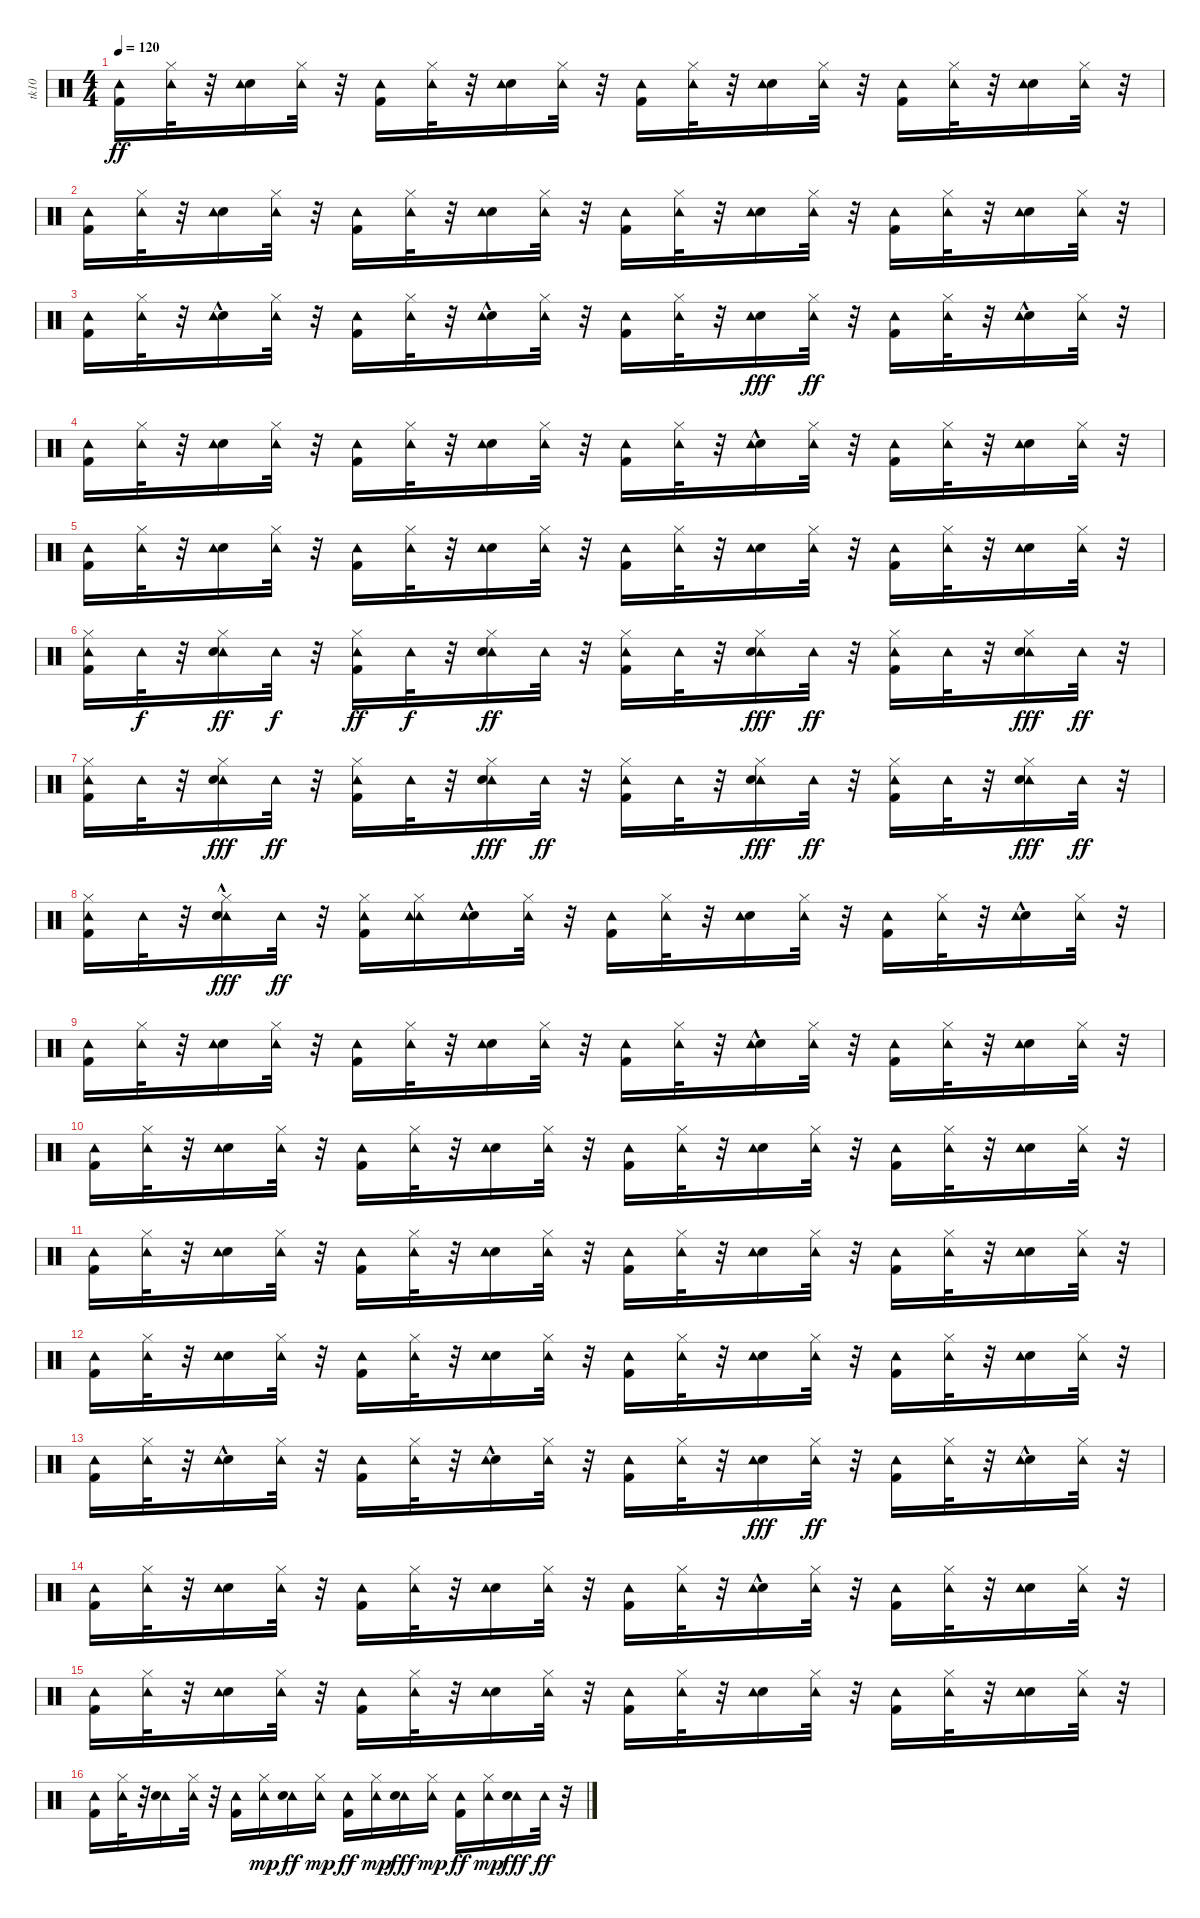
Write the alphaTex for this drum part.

\track ("tk10" "tk10") {instrument percussion}
\staff {score}
\articulation defaults
\ts (4 4)
\tempo 120
\clef neutral
\ks c
("Kick (hit) 2" "Tambourine (hit)").16{dy ff} ("Tambourine (hit)" "Hi-Hat (closed)").32 r.32 ("Snare (hit) 2" "Tambourine (hit)").16 ("Tambourine (hit)" "Hi-Hat (closed)").32 r.32 ("Kick (hit) 2" "Tambourine (hit)").16 ("Tambourine (hit)" "Hi-Hat (closed)").32 r.32 ("Snare (hit) 2" "Tambourine (hit)").16 ("Hi-Hat (closed)" "Tambourine (hit)").32 r.32 ("Kick (hit) 2" "Tambourine (hit)").16 ("Tambourine (hit)" "Hi-Hat (closed)").32 r.32 ("Snare (hit) 2" "Tambourine (hit)").16 ("Tambourine (hit)" "Hi-Hat (closed)").32 r.32 ("Kick (hit) 2" "Tambourine (hit)").16 ("Tambourine (hit)" "Hi-Hat (closed)").32 r.32 ("Snare (hit) 2" "Tambourine (hit)").16 ("Tambourine (hit)" "Hi-Hat (closed)").32 r.32 |
("Kick (hit) 2" "Tambourine (hit)").16 ("Tambourine (hit)" "Hi-Hat (closed)").32 r.32 ("Snare (hit) 2" "Tambourine (hit)").16 ("Hi-Hat (closed)" "Tambourine (hit)").32 r.32 ("Kick (hit) 2" "Tambourine (hit)").16 ("Tambourine (hit)" "Hi-Hat (closed)").32 r.32 ("Snare (hit) 2" "Tambourine (hit)").16 ("Tambourine (hit)" "Hi-Hat (closed)").32 r.32 ("Kick (hit) 2" "Tambourine (hit)").16 ("Tambourine (hit)" "Hi-Hat (closed)").32 r.32 ("Snare (hit) 2" "Tambourine (hit)").16 ("Tambourine (hit)" "Hi-Hat (closed)").32 r.32 ("Kick (hit) 2" "Tambourine (hit)").16 ("Hi-Hat (closed)" "Tambourine (hit)").32 r.32 ("Snare (hit) 2" "Tambourine (hit)").16 ("Tambourine (hit)" "Hi-Hat (closed)").32 r.32 |
("Kick (hit) 2" "Tambourine (hit)").16 ("Tambourine (hit)" "Hi-Hat (closed)").32 r.32 ("Snare (hit) 2"{hac} "Tambourine (hit)").16 ("Hi-Hat (closed)" "Tambourine (hit)").32 r.32 ("Kick (hit) 2" "Tambourine (hit)").16 ("Hi-Hat (closed)" "Tambourine (hit)").32 r.32 ("Snare (hit) 2"{hac} "Tambourine (hit)").16 ("Tambourine (hit)" "Hi-Hat (closed)").32 r.32 ("Kick (hit) 2" "Tambourine (hit)").16 ("Tambourine (hit)" "Hi-Hat (closed)").32 r.32 ("Snare (hit) 2" "Tambourine (hit)").16{dy fff} ("Tambourine (hit)" "Hi-Hat (closed)").32{dy ff} r.32 ("Kick (hit) 2" "Tambourine (hit)").16 ("Tambourine (hit)" "Hi-Hat (closed)").32 r.32 ("Snare (hit) 2"{hac} "Tambourine (hit)").16 ("Tambourine (hit)" "Hi-Hat (closed)").32 r.32 |
("Kick (hit) 2" "Tambourine (hit)").16 ("Tambourine (hit)" "Hi-Hat (closed)").32 r.32 ("Snare (hit) 2" "Tambourine (hit)").16 ("Tambourine (hit)" "Hi-Hat (closed)").32 r.32 ("Kick (hit) 2" "Tambourine (hit)").16 ("Tambourine (hit)" "Hi-Hat (closed)").32 r.32 ("Snare (hit) 2" "Tambourine (hit)").16 ("Tambourine (hit)" "Hi-Hat (closed)").32 r.32 ("Kick (hit) 2" "Tambourine (hit)").16 ("Tambourine (hit)" "Hi-Hat (closed)").32 r.32 ("Snare (hit) 2"{hac} "Tambourine (hit)").16 ("Tambourine (hit)" "Hi-Hat (closed)").32 r.32 ("Kick (hit) 2" "Tambourine (hit)").16 ("Tambourine (hit)" "Hi-Hat (closed)").32 r.32 ("Snare (hit) 2" "Tambourine (hit)").16 ("Tambourine (hit)" "Hi-Hat (closed)").32 r.32 |
("Kick (hit) 2" "Tambourine (hit)").16 ("Hi-Hat (closed)" "Tambourine (hit)").32 r.32 ("Snare (hit) 2" "Tambourine (hit)").16 ("Tambourine (hit)" "Hi-Hat (closed)").32 r.32 ("Kick (hit) 2" "Tambourine (hit)").16 ("Tambourine (hit)" "Hi-Hat (closed)").32 r.32 ("Snare (hit) 2" "Tambourine (hit)").16 ("Tambourine (hit)" "Hi-Hat (closed)").32 r.32 ("Kick (hit) 2" "Tambourine (hit)").16 ("Tambourine (hit)" "Hi-Hat (closed)").32 r.32 ("Snare (hit) 2" "Tambourine (hit)").16 ("Hi-Hat (closed)" "Tambourine (hit)").32 r.32 ("Kick (hit) 2" "Tambourine (hit)").16 ("Tambourine (hit)" "Hi-Hat (closed)").32 r.32 ("Snare (hit) 2" "Tambourine (hit)").16 ("Tambourine (hit)" "Hi-Hat (closed)").32 r.32 |
("Tambourine (hit)" "Hi-Hat (closed)" "Kick (hit) 2").16 "Tambourine (hit)".32{dy f} r.32 ("Tambourine (hit)" "Hi-Hat (closed)" "Snare (hit) 2").16{dy ff} "Tambourine (hit)".32{dy f} r.32 ("Tambourine (hit)" "Hi-Hat (closed)" "Kick (hit) 2").16{dy ff} "Tambourine (hit)".32{dy f} r.32 ("Tambourine (hit)" "Hi-Hat (closed)" "Snare (hit) 2").16{dy ff} "Tambourine (hit)".32 r.32 ("Tambourine (hit)" "Hi-Hat (closed)" "Kick (hit) 2").16 "Tambourine (hit)".32 r.32 ("Tambourine (hit)" "Hi-Hat (closed)" "Snare (hit) 2").16{dy fff} "Tambourine (hit)".32{dy ff} r.32 ("Tambourine (hit)" "Hi-Hat (closed)" "Kick (hit) 2").16 "Tambourine (hit)".32 r.32 ("Tambourine (hit)" "Hi-Hat (closed)" "Snare (hit) 2").16{dy fff} "Tambourine (hit)".32{dy ff} r.32 |
("Tambourine (hit)" "Hi-Hat (closed)" "Kick (hit) 2").16 "Tambourine (hit)".32 r.32 ("Tambourine (hit)" "Hi-Hat (closed)" "Snare (hit) 2").16{dy fff} "Tambourine (hit)".32{dy ff} r.32 ("Tambourine (hit)" "Hi-Hat (closed)" "Kick (hit) 2").16 "Tambourine (hit)".32 r.32 ("Tambourine (hit)" "Hi-Hat (closed)" "Snare (hit) 2").16{dy fff} "Tambourine (hit)".32{dy ff} r.32 ("Tambourine (hit)" "Hi-Hat (closed)" "Kick (hit) 2").16 "Tambourine (hit)".32 r.32 ("Tambourine (hit)" "Hi-Hat (closed)" "Snare (hit) 2").16{dy fff} "Tambourine (hit)".32{dy ff} r.32 ("Tambourine (hit)" "Hi-Hat (closed)" "Kick (hit) 2").16 "Tambourine (hit)".32 r.32 ("Tambourine (hit)" "Hi-Hat (closed)" "Snare (hit) 2").16{dy fff} "Tambourine (hit)".32{dy ff} r.32 |
("Tambourine (hit)" "Hi-Hat (closed)" "Kick (hit) 2").16 "Tambourine (hit)".32 r.32 ("Tambourine (hit)" "Hi-Hat (closed)" "Snare (hit) 2"{hac}).16{dy fff} "Tambourine (hit)".32{dy ff} r.32 ("Tambourine (hit)" "Hi-Hat (closed)" "Kick (hit) 2").16 ("Tambourine (hit)" "Hi-Hat (closed)" "Tambourine (hit)").16 ("Snare (hit) 2"{hac} "Tambourine (hit)").16 ("Hi-Hat (closed)" "Tambourine (hit)").32 r.32 ("Kick (hit) 2" "Tambourine (hit)").16 ("Hi-Hat (closed)" "Tambourine (hit)").32 r.32 ("Snare (hit) 2" "Tambourine (hit)").16 ("Tambourine (hit)" "Hi-Hat (closed)").32 r.32 ("Kick (hit) 2" "Tambourine (hit)").16 ("Tambourine (hit)" "Hi-Hat (closed)").32 r.32 ("Snare (hit) 2"{hac} "Tambourine (hit)").16 ("Tambourine (hit)" "Hi-Hat (closed)").32 r.32 |
("Kick (hit) 2" "Tambourine (hit)").16 ("Hi-Hat (closed)" "Tambourine (hit)").32 r.32 ("Snare (hit) 2" "Tambourine (hit)").16 ("Hi-Hat (closed)" "Tambourine (hit)").32 r.32 ("Kick (hit) 2" "Tambourine (hit)").16 ("Tambourine (hit)" "Hi-Hat (closed)").32 r.32 ("Snare (hit) 2" "Tambourine (hit)").16 ("Hi-Hat (closed)" "Tambourine (hit)").32 r.32 ("Kick (hit) 2" "Tambourine (hit)").16 ("Tambourine (hit)" "Hi-Hat (closed)").32 r.32 ("Snare (hit) 2"{hac} "Tambourine (hit)").16 ("Tambourine (hit)" "Hi-Hat (closed)").32 r.32 ("Kick (hit) 2" "Tambourine (hit)").16 ("Tambourine (hit)" "Hi-Hat (closed)").32 r.32 ("Snare (hit) 2" "Tambourine (hit)").16 ("Tambourine (hit)" "Hi-Hat (closed)").32 r.32 |
("Kick (hit) 2" "Tambourine (hit)").16 ("Tambourine (hit)" "Hi-Hat (closed)").32 r.32 ("Snare (hit) 2" "Tambourine (hit)").16 ("Hi-Hat (closed)" "Tambourine (hit)").32 r.32 ("Kick (hit) 2" "Tambourine (hit)").16 ("Tambourine (hit)" "Hi-Hat (closed)").32 r.32 ("Snare (hit) 2" "Tambourine (hit)").16 ("Hi-Hat (closed)" "Tambourine (hit)").32 r.32 ("Kick (hit) 2" "Tambourine (hit)").16 ("Tambourine (hit)" "Hi-Hat (closed)").32 r.32 ("Snare (hit) 2" "Tambourine (hit)").16 ("Tambourine (hit)" "Hi-Hat (closed)").32 r.32 ("Kick (hit) 2" "Tambourine (hit)").16 ("Hi-Hat (closed)" "Tambourine (hit)").32 r.32 ("Snare (hit) 2" "Tambourine (hit)").16 ("Hi-Hat (closed)" "Tambourine (hit)").32 r.32 |
("Kick (hit) 2" "Tambourine (hit)").16 ("Tambourine (hit)" "Hi-Hat (closed)").32 r.32 ("Snare (hit) 2" "Tambourine (hit)").16 ("Tambourine (hit)" "Hi-Hat (closed)").32 r.32 ("Kick (hit) 2" "Tambourine (hit)").16 ("Tambourine (hit)" "Hi-Hat (closed)").32 r.32 ("Snare (hit) 2" "Tambourine (hit)").16 ("Hi-Hat (closed)" "Tambourine (hit)").32 r.32 ("Kick (hit) 2" "Tambourine (hit)").16 ("Tambourine (hit)" "Hi-Hat (closed)").32 r.32 ("Snare (hit) 2" "Tambourine (hit)").16 ("Tambourine (hit)" "Hi-Hat (closed)").32 r.32 ("Kick (hit) 2" "Tambourine (hit)").16 ("Tambourine (hit)" "Hi-Hat (closed)").32 r.32 ("Snare (hit) 2" "Tambourine (hit)").16 ("Tambourine (hit)" "Hi-Hat (closed)").32 r.32 |
("Kick (hit) 2" "Tambourine (hit)").16 ("Tambourine (hit)" "Hi-Hat (closed)").32 r.32 ("Snare (hit) 2" "Tambourine (hit)").16 ("Hi-Hat (closed)" "Tambourine (hit)").32 r.32 ("Kick (hit) 2" "Tambourine (hit)").16 ("Tambourine (hit)" "Hi-Hat (closed)").32 r.32 ("Snare (hit) 2" "Tambourine (hit)").16 ("Tambourine (hit)" "Hi-Hat (closed)").32 r.32 ("Kick (hit) 2" "Tambourine (hit)").16 ("Tambourine (hit)" "Hi-Hat (closed)").32 r.32 ("Snare (hit) 2" "Tambourine (hit)").16 ("Tambourine (hit)" "Hi-Hat (closed)").32 r.32 ("Kick (hit) 2" "Tambourine (hit)").16 ("Hi-Hat (closed)" "Tambourine (hit)").32 r.32 ("Snare (hit) 2" "Tambourine (hit)").16 ("Tambourine (hit)" "Hi-Hat (closed)").32 r.32 |
("Kick (hit) 2" "Tambourine (hit)").16 ("Tambourine (hit)" "Hi-Hat (closed)").32 r.32 ("Snare (hit) 2"{hac} "Tambourine (hit)").16 ("Hi-Hat (closed)" "Tambourine (hit)").32 r.32 ("Kick (hit) 2" "Tambourine (hit)").16 ("Hi-Hat (closed)" "Tambourine (hit)").32 r.32 ("Snare (hit) 2"{hac} "Tambourine (hit)").16 ("Tambourine (hit)" "Hi-Hat (closed)").32 r.32 ("Kick (hit) 2" "Tambourine (hit)").16 ("Tambourine (hit)" "Hi-Hat (closed)").32 r.32 ("Snare (hit) 2" "Tambourine (hit)").16{dy fff} ("Tambourine (hit)" "Hi-Hat (closed)").32{dy ff} r.32 ("Kick (hit) 2" "Tambourine (hit)").16 ("Tambourine (hit)" "Hi-Hat (closed)").32 r.32 ("Snare (hit) 2"{hac} "Tambourine (hit)").16 ("Tambourine (hit)" "Hi-Hat (closed)").32 r.32 |
("Kick (hit) 2" "Tambourine (hit)").16 ("Tambourine (hit)" "Hi-Hat (closed)").32 r.32 ("Snare (hit) 2" "Tambourine (hit)").16 ("Tambourine (hit)" "Hi-Hat (closed)").32 r.32 ("Kick (hit) 2" "Tambourine (hit)").16 ("Tambourine (hit)" "Hi-Hat (closed)").32 r.32 ("Snare (hit) 2" "Tambourine (hit)").16 ("Tambourine (hit)" "Hi-Hat (closed)").32 r.32 ("Kick (hit) 2" "Tambourine (hit)").16 ("Tambourine (hit)" "Hi-Hat (closed)").32 r.32 ("Snare (hit) 2"{hac} "Tambourine (hit)").16 ("Tambourine (hit)" "Hi-Hat (closed)").32 r.32 ("Kick (hit) 2" "Tambourine (hit)").16 ("Tambourine (hit)" "Hi-Hat (closed)").32 r.32 ("Snare (hit) 2" "Tambourine (hit)").16 ("Tambourine (hit)" "Hi-Hat (closed)").32 r.32 |
("Kick (hit) 2" "Tambourine (hit)").16 ("Hi-Hat (closed)" "Tambourine (hit)").32 r.32 ("Snare (hit) 2" "Tambourine (hit)").16 ("Tambourine (hit)" "Hi-Hat (closed)").32 r.32 ("Kick (hit) 2" "Tambourine (hit)").16 ("Tambourine (hit)" "Hi-Hat (closed)").32 r.32 ("Snare (hit) 2" "Tambourine (hit)").16 ("Tambourine (hit)" "Hi-Hat (closed)").32 r.32 ("Kick (hit) 2" "Tambourine (hit)").16 ("Tambourine (hit)" "Hi-Hat (closed)").32 r.32 ("Snare (hit) 2" "Tambourine (hit)").16 ("Hi-Hat (closed)" "Tambourine (hit)").32 r.32 ("Kick (hit) 2" "Tambourine (hit)").16 ("Tambourine (hit)" "Hi-Hat (closed)").32 r.32 ("Snare (hit) 2" "Tambourine (hit)").16 ("Tambourine (hit)" "Hi-Hat (closed)").32 r.32 |
("Kick (hit) 2" "Tambourine (hit)").16 ("Tambourine (hit)" "Hi-Hat (closed)").32 r.32 ("Tambourine (hit)" "Snare (hit) 2").16 ("Tambourine (hit)" "Hi-Hat (closed)").32 r.32 ("Tambourine (hit)" "Kick (hit) 2").16 ("Tambourine (hit)" "Hi-Hat (closed)").16{dy mp} ("Tambourine (hit)" "Snare (hit) 2").16{dy ff} ("Tambourine (hit)" "Hi-Hat (closed)").16{dy mp} ("Tambourine (hit)" "Kick (hit) 2").16{dy ff} ("Tambourine (hit)" "Hi-Hat (closed)").16{dy mp} ("Tambourine (hit)" "Snare (hit) 2").16{dy fff} ("Tambourine (hit)" "Hi-Hat (closed)").16{dy mp} ("Tambourine (hit)" "Kick (hit) 2").16{dy ff} ("Tambourine (hit)" "Hi-Hat (closed)").16{dy mp} ("Tambourine (hit)" "Snare (hit) 2").16{dy fff} "Tambourine (hit)".32{dy ff} r.32
